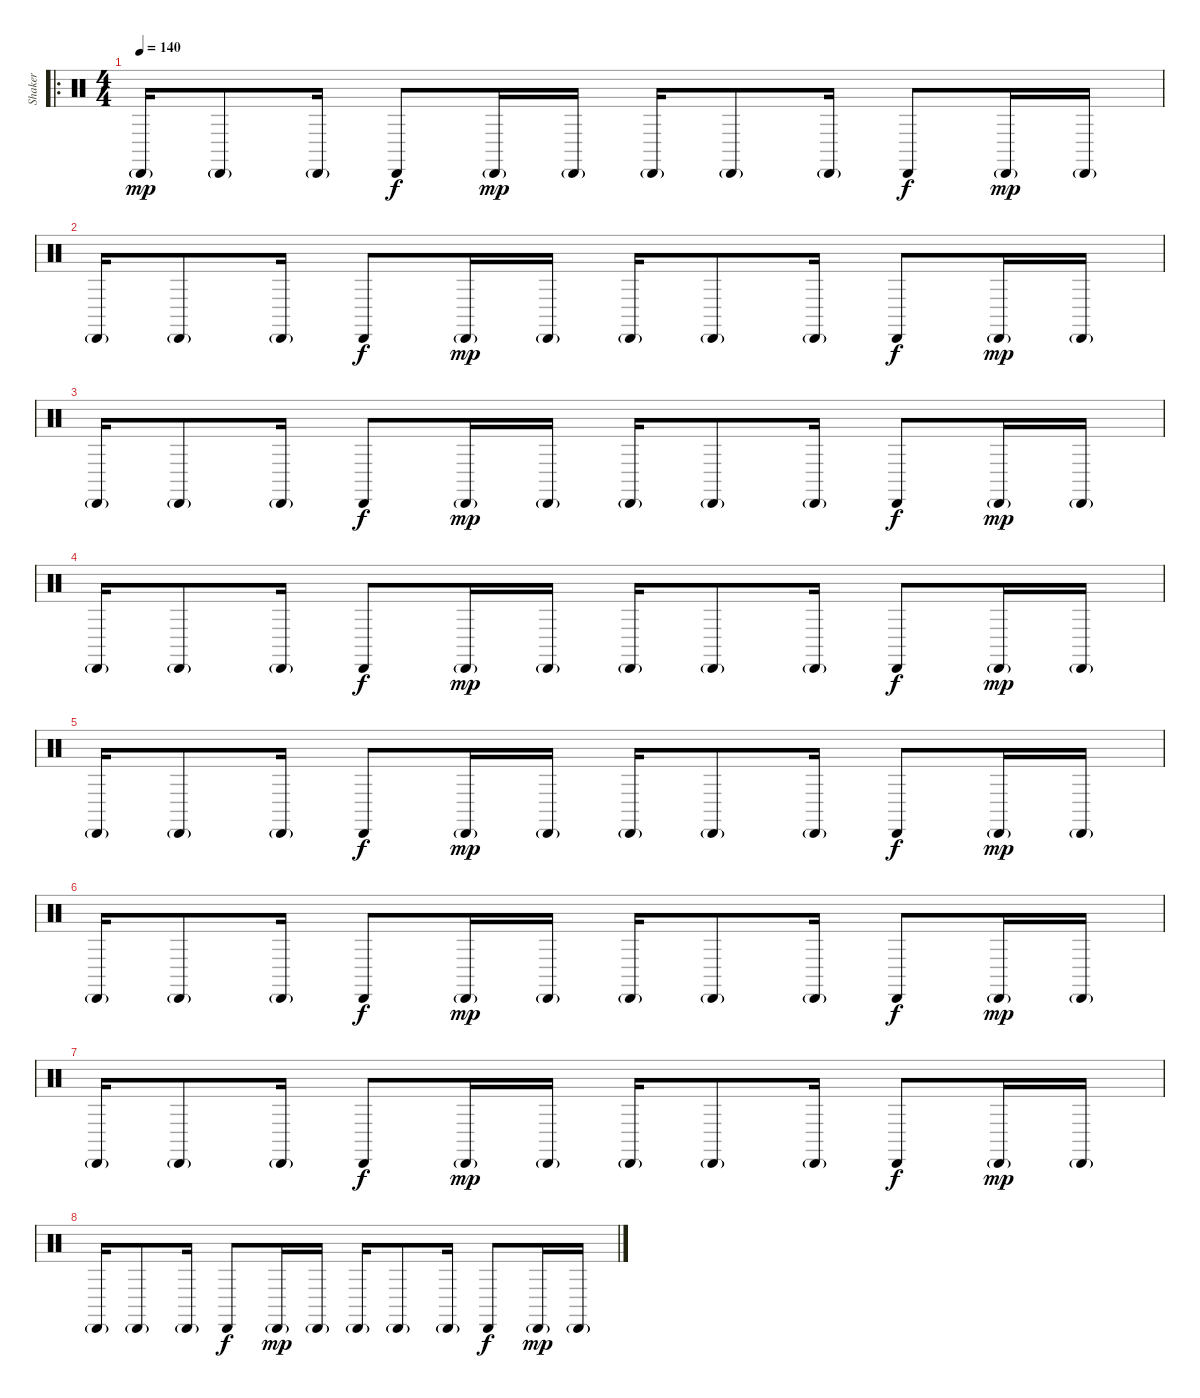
\track ("Shaker" "Shaker") {instrument percussion}
\staff {score}
\articulation defaults
\ro
\ts (4 4)
\tempo 140
\clef neutral
\ks c "Cabasa (hit)"{g}.16{dy mp} "Cabasa (hit)"{g}.8 "Cabasa (hit)"{g}.16 "Cabasa (hit)".8{dy f} "Cabasa (hit)"{g}.16{dy mp} "Cabasa (hit)"{g}.16 "Cabasa (hit)"{g}.16 "Cabasa (hit)"{g}.8 "Cabasa (hit)"{g}.16 "Cabasa (hit)".8{dy f} "Cabasa (hit)"{g}.16{dy mp} "Cabasa (hit)"{g}.16
|
"Cabasa (hit)"{g}.16 "Cabasa (hit)"{g}.8 "Cabasa (hit)"{g}.16 "Cabasa (hit)".8{dy f} "Cabasa (hit)"{g}.16{dy mp} "Cabasa (hit)"{g}.16 "Cabasa (hit)"{g}.16 "Cabasa (hit)"{g}.8 "Cabasa (hit)"{g}.16 "Cabasa (hit)".8{dy f} "Cabasa (hit)"{g}.16{dy mp} "Cabasa (hit)"{g}.16 |
"Cabasa (hit)"{g}.16 "Cabasa (hit)"{g}.8 "Cabasa (hit)"{g}.16 "Cabasa (hit)".8{dy f} "Cabasa (hit)"{g}.16{dy mp} "Cabasa (hit)"{g}.16 "Cabasa (hit)"{g}.16 "Cabasa (hit)"{g}.8 "Cabasa (hit)"{g}.16 "Cabasa (hit)".8{dy f} "Cabasa (hit)"{g}.16{dy mp} "Cabasa (hit)"{g}.16 |
"Cabasa (hit)"{g}.16 "Cabasa (hit)"{g}.8 "Cabasa (hit)"{g}.16 "Cabasa (hit)".8{dy f} "Cabasa (hit)"{g}.16{dy mp} "Cabasa (hit)"{g}.16 "Cabasa (hit)"{g}.16 "Cabasa (hit)"{g}.8 "Cabasa (hit)"{g}.16 "Cabasa (hit)".8{dy f} "Cabasa (hit)"{g}.16{dy mp} "Cabasa (hit)"{g}.16 |
"Cabasa (hit)"{g}.16 "Cabasa (hit)"{g}.8 "Cabasa (hit)"{g}.16 "Cabasa (hit)".8{dy f} "Cabasa (hit)"{g}.16{dy mp} "Cabasa (hit)"{g}.16 "Cabasa (hit)"{g}.16 "Cabasa (hit)"{g}.8 "Cabasa (hit)"{g}.16 "Cabasa (hit)".8{dy f} "Cabasa (hit)"{g}.16{dy mp} "Cabasa (hit)"{g}.16 |
"Cabasa (hit)"{g}.16 "Cabasa (hit)"{g}.8 "Cabasa (hit)"{g}.16 "Cabasa (hit)".8{dy f} "Cabasa (hit)"{g}.16{dy mp} "Cabasa (hit)"{g}.16 "Cabasa (hit)"{g}.16 "Cabasa (hit)"{g}.8 "Cabasa (hit)"{g}.16 "Cabasa (hit)".8{dy f} "Cabasa (hit)"{g}.16{dy mp} "Cabasa (hit)"{g}.16 |
"Cabasa (hit)"{g}.16 "Cabasa (hit)"{g}.8 "Cabasa (hit)"{g}.16 "Cabasa (hit)".8{dy f} "Cabasa (hit)"{g}.16{dy mp} "Cabasa (hit)"{g}.16 "Cabasa (hit)"{g}.16 "Cabasa (hit)"{g}.8 "Cabasa (hit)"{g}.16 "Cabasa (hit)".8{dy f} "Cabasa (hit)"{g}.16{dy mp} "Cabasa (hit)"{g}.16 |
"Cabasa (hit)"{g}.16 "Cabasa (hit)"{g}.8 "Cabasa (hit)"{g}.16 "Cabasa (hit)".8{dy f} "Cabasa (hit)"{g}.16{dy mp} "Cabasa (hit)"{g}.16 "Cabasa (hit)"{g}.16 "Cabasa (hit)"{g}.8 "Cabasa (hit)"{g}.16 "Cabasa (hit)".8{dy f} "Cabasa (hit)"{g}.16{dy mp} "Cabasa (hit)"{g}.16
